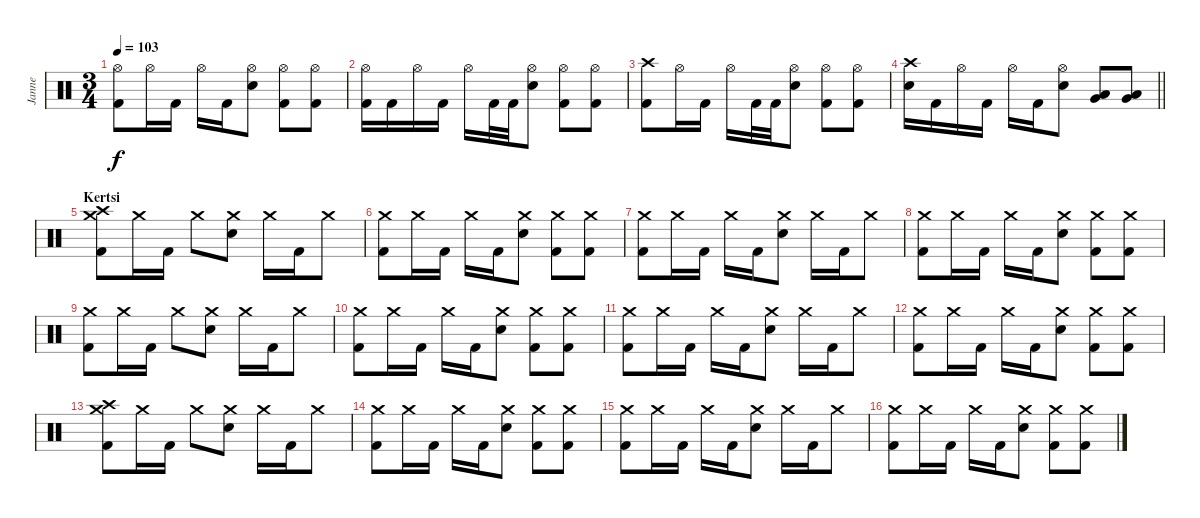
\track ("Janne" "Janne") {instrument percussion}
\staff {score}
\articulation defaults
\ts (3 4)
\tempo 103
\clef neutral
\ks c
("Hi-Hat (open)" "Kick (hit) 2").8{dy f} "Hi-Hat (open)".16 "Kick (hit) 2".16 "Hi-Hat (open)".16 "Kick (hit) 2".16 ("Hi-Hat (open)" "Electric Snare (hit)").8 ("Hi-Hat (open)" "Kick (hit) 2").8 ("Hi-Hat (open)" "Kick (hit) 2").8 |
("Hi-Hat (open)" "Kick (hit) 2").16 "Kick (hit) 2".16 "Hi-Hat (open)".16 "Kick (hit) 2".16 "Hi-Hat (open)".16 "Kick (hit) 2".32 "Kick (hit) 2".32 ("Hi-Hat (open)" "Electric Snare (hit)").8 ("Hi-Hat (open)" "Kick (hit) 2").8 ("Hi-Hat (open)" "Kick (hit) 2").8 |
("Crash high (hit)" "Kick (hit) 2").8 "Hi-Hat (open)".16 "Kick (hit) 2".16 "Hi-Hat (open)".16 "Kick (hit) 2".32 "Kick (hit) 2".32 ("Hi-Hat (open)" "Electric Snare (hit)").8 ("Hi-Hat (open)" "Kick (hit) 2").8 ("Hi-Hat (open)" "Kick (hit) 2").8 |
\barLineRight lightlight
("Crash high (hit)" "Electric Snare (hit)").16 "Kick (hit) 2".16 "Hi-Hat (open)".16 "Kick (hit) 2".16 "Hi-Hat (open)".16 "Kick (hit) 2".16 ("Hi-Hat (open)" "Electric Snare (hit)").8 ("Low Tom (hit)" "Very Low Tom (hit)").8 ("Very Low Tom (hit)" "Low Floor Tom (hit)").8 |
\section ("" "Kertsi")
("Crash high (hit)" "Crash medium (hit)" "Kick (hit) 2").8 "Crash medium (hit)".16 "Kick (hit) 2".16 "Crash medium (hit)".8 ("Crash medium (hit)" "Electric Snare (hit)").8 "Crash medium (hit)".16 "Kick (hit) 2".16 "Crash medium (hit)".8 |
("Crash medium (hit)" "Kick (hit) 2").8 "Crash medium (hit)".16 "Kick (hit) 2".16 "Crash medium (hit)".16 "Kick (hit) 2".16 ("Crash medium (hit)" "Electric Snare (hit)").8 ("Crash medium (hit)" "Kick (hit) 2").8 ("Crash medium (hit)" "Kick (hit) 2").8 |
("Crash medium (hit)" "Kick (hit) 2").8 "Crash medium (hit)".16 "Kick (hit) 2".16 "Crash medium (hit)".16 "Kick (hit) 2".16 ("Crash medium (hit)" "Electric Snare (hit)").8 "Crash medium (hit)".16 "Kick (hit) 2".16 "Crash medium (hit)".8 |
("Crash medium (hit)" "Kick (hit) 2").8 "Crash medium (hit)".16 "Kick (hit) 2".16 "Crash medium (hit)".16 "Kick (hit) 2".16 ("Crash medium (hit)" "Electric Snare (hit)").8 ("Crash medium (hit)" "Kick (hit) 2").8 ("Crash medium (hit)" "Kick (hit) 2").8 |
("Crash medium (hit)" "Kick (hit) 2").8 "Crash medium (hit)".16 "Kick (hit) 2".16 "Crash medium (hit)".8 ("Crash medium (hit)" "Electric Snare (hit)").8 "Crash medium (hit)".16 "Kick (hit) 2".16 "Crash medium (hit)".8 |
("Crash medium (hit)" "Kick (hit) 2").8 "Crash medium (hit)".16 "Kick (hit) 2".16 "Crash medium (hit)".16 "Kick (hit) 2".16 ("Crash medium (hit)" "Electric Snare (hit)").8 ("Crash medium (hit)" "Kick (hit) 2").8 ("Crash medium (hit)" "Kick (hit) 2").8 |
("Crash medium (hit)" "Kick (hit) 2").8 "Crash medium (hit)".16 "Kick (hit) 2".16 "Crash medium (hit)".16 "Kick (hit) 2".16 ("Crash medium (hit)" "Electric Snare (hit)").8 "Crash medium (hit)".16 "Kick (hit) 2".16 "Crash medium (hit)".8 |
("Crash medium (hit)" "Kick (hit) 2").8 "Crash medium (hit)".16 "Kick (hit) 2".16 "Crash medium (hit)".16 "Kick (hit) 2".16 ("Crash medium (hit)" "Electric Snare (hit)").8 ("Crash medium (hit)" "Kick (hit) 2").8 ("Crash medium (hit)" "Kick (hit) 2").8 |
("Crash high (hit)" "Crash medium (hit)" "Kick (hit) 2").8 "Crash medium (hit)".16 "Kick (hit) 2".16 "Crash medium (hit)".8 ("Crash medium (hit)" "Electric Snare (hit)").8 "Crash medium (hit)".16 "Kick (hit) 2".16 "Crash medium (hit)".8 |
("Crash medium (hit)" "Kick (hit) 2").8 "Crash medium (hit)".16 "Kick (hit) 2".16 "Crash medium (hit)".16 "Kick (hit) 2".16 ("Crash medium (hit)" "Electric Snare (hit)").8 ("Crash medium (hit)" "Kick (hit) 2").8 ("Crash medium (hit)" "Kick (hit) 2").8 |
("Crash medium (hit)" "Kick (hit) 2").8 "Crash medium (hit)".16 "Kick (hit) 2".16 "Crash medium (hit)".16 "Kick (hit) 2".16 ("Crash medium (hit)" "Electric Snare (hit)").8 "Crash medium (hit)".16 "Kick (hit) 2".16 "Crash medium (hit)".8 |
("Crash medium (hit)" "Kick (hit) 2").8 "Crash medium (hit)".16 "Kick (hit) 2".16 "Crash medium (hit)".16 "Kick (hit) 2".16 ("Crash medium (hit)" "Electric Snare (hit)").8 ("Crash medium (hit)" "Kick (hit) 2").8 ("Crash medium (hit)" "Kick (hit) 2").8
